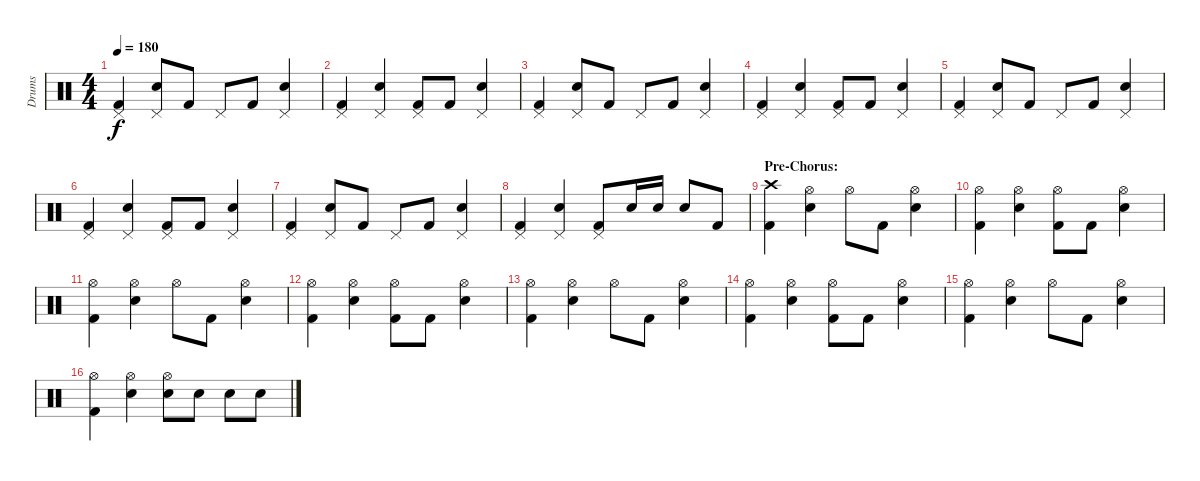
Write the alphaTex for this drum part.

\track ("Drums" "Drums") {instrument percussion}
\staff {score}
\articulation defaults
\ts (4 4)
\tempo 180
\clef neutral
\ks c
("Pedal Hi-Hat (hit)" "Kick (hit) 2").4{dy f} ("Pedal Hi-Hat (hit)" "Electric Snare (hit)").8 "Kick (hit) 2".8 "Pedal Hi-Hat (hit)".8 "Kick (hit) 2".8 ("Pedal Hi-Hat (hit)" "Electric Snare (hit)").4 |
("Pedal Hi-Hat (hit)" "Kick (hit) 2").4 ("Pedal Hi-Hat (hit)" "Electric Snare (hit)").4 ("Pedal Hi-Hat (hit)" "Kick (hit) 2").8 "Kick (hit) 2".8 ("Pedal Hi-Hat (hit)" "Electric Snare (hit)").4 |
("Pedal Hi-Hat (hit)" "Kick (hit) 2").4 ("Pedal Hi-Hat (hit)" "Electric Snare (hit)").8 "Kick (hit) 2".8 "Pedal Hi-Hat (hit)".8 "Kick (hit) 2".8 ("Pedal Hi-Hat (hit)" "Electric Snare (hit)").4 |
("Pedal Hi-Hat (hit)" "Kick (hit) 2").4 ("Pedal Hi-Hat (hit)" "Electric Snare (hit)").4 ("Pedal Hi-Hat (hit)" "Kick (hit) 2").8 "Kick (hit) 2".8 ("Pedal Hi-Hat (hit)" "Electric Snare (hit)").4 |
("Pedal Hi-Hat (hit)" "Kick (hit) 2").4 ("Pedal Hi-Hat (hit)" "Electric Snare (hit)").8 "Kick (hit) 2".8 "Pedal Hi-Hat (hit)".8 "Kick (hit) 2".8 ("Pedal Hi-Hat (hit)" "Electric Snare (hit)").4 |
("Pedal Hi-Hat (hit)" "Kick (hit) 2").4 ("Pedal Hi-Hat (hit)" "Electric Snare (hit)").4 ("Pedal Hi-Hat (hit)" "Kick (hit) 2").8 "Kick (hit) 2".8 ("Pedal Hi-Hat (hit)" "Electric Snare (hit)").4 |
("Pedal Hi-Hat (hit)" "Kick (hit) 2").4 ("Pedal Hi-Hat (hit)" "Electric Snare (hit)").8 "Kick (hit) 2".8 "Pedal Hi-Hat (hit)".8 "Kick (hit) 2".8 ("Pedal Hi-Hat (hit)" "Electric Snare (hit)").4 |
("Pedal Hi-Hat (hit)" "Kick (hit) 2").4 ("Pedal Hi-Hat (hit)" "Electric Snare (hit)").4 ("Pedal Hi-Hat (hit)" "Kick (hit) 2").8 "Electric Snare (hit)".16 "Electric Snare (hit)".16 "Electric Snare (hit)".8 "Kick (hit) 2".8 |
\section ("" "Pre-Chorus:")
("Crash high (hit)" "Kick (hit) 2").4 ("Hi-Hat (open)" "Electric Snare (hit)").4 "Hi-Hat (open)".8 "Kick (hit) 2".8 ("Hi-Hat (open)" "Electric Snare (hit)").4 |
("Hi-Hat (open)" "Kick (hit) 2").4 ("Hi-Hat (open)" "Electric Snare (hit)").4 ("Hi-Hat (open)" "Kick (hit) 2").8 "Kick (hit) 2".8 ("Hi-Hat (open)" "Electric Snare (hit)").4 |
("Hi-Hat (open)" "Kick (hit) 2").4 ("Hi-Hat (open)" "Electric Snare (hit)").4 "Hi-Hat (open)".8 "Kick (hit) 2".8 ("Hi-Hat (open)" "Electric Snare (hit)").4 |
("Hi-Hat (open)" "Kick (hit) 2").4 ("Hi-Hat (open)" "Electric Snare (hit)").4 ("Hi-Hat (open)" "Kick (hit) 2").8 "Kick (hit) 2".8 ("Hi-Hat (open)" "Electric Snare (hit)").4 |
("Hi-Hat (open)" "Kick (hit) 2").4 ("Hi-Hat (open)" "Electric Snare (hit)").4 "Hi-Hat (open)".8 "Kick (hit) 2".8 ("Hi-Hat (open)" "Electric Snare (hit)").4 |
("Hi-Hat (open)" "Kick (hit) 2").4 ("Hi-Hat (open)" "Electric Snare (hit)").4 ("Hi-Hat (open)" "Kick (hit) 2").8 "Kick (hit) 2".8 ("Hi-Hat (open)" "Electric Snare (hit)").4 |
("Hi-Hat (open)" "Kick (hit) 2").4 ("Hi-Hat (open)" "Electric Snare (hit)").4 "Hi-Hat (open)".8 "Kick (hit) 2".8 ("Hi-Hat (open)" "Electric Snare (hit)").4 |
("Hi-Hat (open)" "Kick (hit) 2").4 ("Hi-Hat (open)" "Electric Snare (hit)").4 ("Hi-Hat (open)" "Electric Snare (hit)").8 "Electric Snare (hit)".8 "Electric Snare (hit)".8 "Electric Snare (hit)".8
